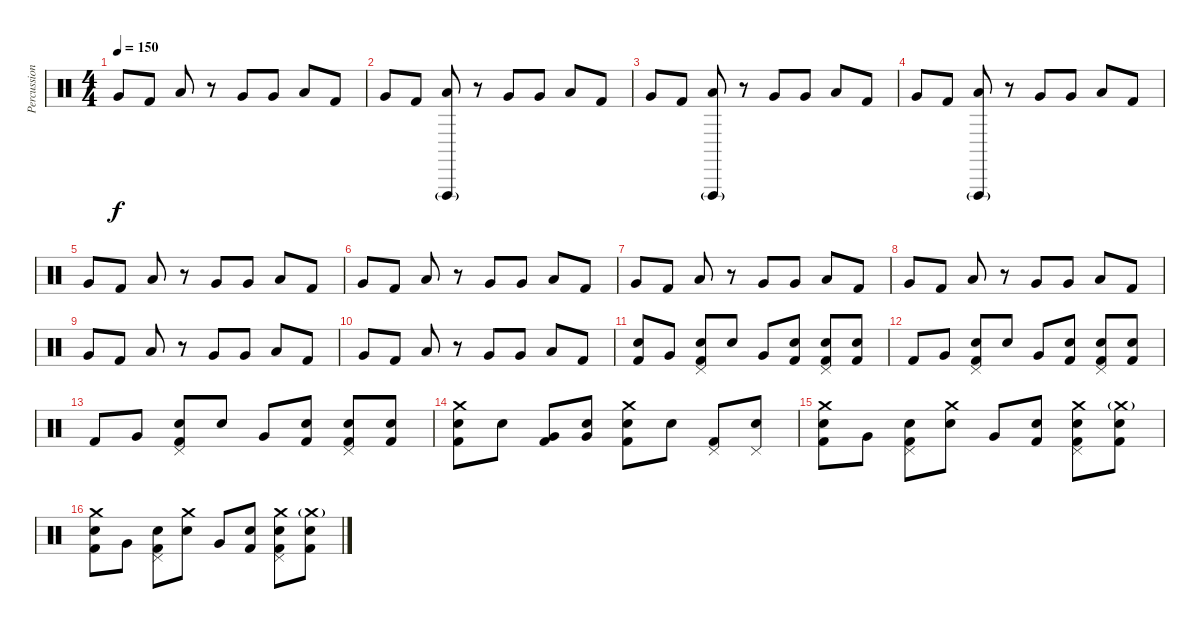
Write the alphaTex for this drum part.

\track ("Percussions" "Percussion") {instrument percussion}
\staff {score}
\articulation defaults
\ts (4 4)
\tempo 150
\clef neutral
\ks c "Very Low Tom (hit)".8{dy f} "Kick (hit) 2".8 "Low Tom (hit)".8
r.8 "Very Low Tom (hit)".8 "Very Low Tom (hit)".8 "Low Tom (hit)".8 "Kick (hit) 2".8 |
"Very Low Tom (hit)".8 "Kick (hit) 2".8 ("Vibraslap (hit)"{g} "Low Tom (hit)").8 r.8 "Very Low Tom (hit)".8 "Very Low Tom (hit)".8 "Low Tom (hit)".8 "Kick (hit) 2".8 |
"Very Low Tom (hit)".8 "Kick (hit) 2".8 ("Vibraslap (hit)"{g} "Low Tom (hit)").8 r.8 "Very Low Tom (hit)".8 "Very Low Tom (hit)".8 "Low Tom (hit)".8 "Kick (hit) 2".8 |
"Very Low Tom (hit)".8 "Kick (hit) 2".8 ("Vibraslap (hit)"{g} "Low Tom (hit)").8 r.8 "Very Low Tom (hit)".8 "Very Low Tom (hit)".8 "Low Tom (hit)".8 "Kick (hit) 2".8 |
"Very Low Tom (hit)".8 "Kick (hit) 2".8 "Low Tom (hit)".8 r.8 "Very Low Tom (hit)".8 "Very Low Tom (hit)".8 "Low Tom (hit)".8 "Kick (hit) 2".8 |
"Very Low Tom (hit)".8 "Kick (hit) 2".8 "Low Tom (hit)".8 r.8 "Very Low Tom (hit)".8 "Very Low Tom (hit)".8 "Low Tom (hit)".8 "Kick (hit) 2".8 |
"Very Low Tom (hit)".8 "Kick (hit) 2".8 "Low Tom (hit)".8 r.8 "Very Low Tom (hit)".8 "Very Low Tom (hit)".8 "Low Tom (hit)".8 "Kick (hit) 2".8 |
"Very Low Tom (hit)".8 "Kick (hit) 2".8 "Low Tom (hit)".8 r.8 "Very Low Tom (hit)".8 "Very Low Tom (hit)".8 "Low Tom (hit)".8 "Kick (hit) 2".8 |
"Very Low Tom (hit)".8 "Kick (hit) 2".8 "Low Tom (hit)".8 r.8 "Very Low Tom (hit)".8 "Very Low Tom (hit)".8 "Low Tom (hit)".8 "Kick (hit) 2".8 |
"Very Low Tom (hit)".8 "Kick (hit) 2".8 "Low Tom (hit)".8 r.8 "Very Low Tom (hit)".8 "Very Low Tom (hit)".8 "Low Tom (hit)".8 "Kick (hit) 2".8 |
("Electric Snare (hit)" "Kick (hit) 2").8 "Very Low Tom (hit)".8 ("Electric Snare (hit)" "Pedal Hi-Hat (hit)" "Kick (hit) 2").8 "Electric Snare (hit)".8 "Very Low Tom (hit)".8 ("Electric Snare (hit)" "Kick (hit) 2").8 ("Electric Snare (hit)" "Pedal Hi-Hat (hit)" "Kick (hit) 2").8 ("Electric Snare (hit)" "Kick (hit) 2").8 |
"Kick (hit) 2".8 "Very Low Tom (hit)".8 ("Electric Snare (hit)" "Pedal Hi-Hat (hit)" "Kick (hit) 2").8 "Electric Snare (hit)".8 "Very Low Tom (hit)".8 ("Electric Snare (hit)" "Kick (hit) 2").8 ("Electric Snare (hit)" "Pedal Hi-Hat (hit)" "Kick (hit) 2").8 ("Electric Snare (hit)" "Kick (hit) 2").8 |
"Kick (hit) 2".8 "Very Low Tom (hit)".8 ("Electric Snare (hit)" "Pedal Hi-Hat (hit)" "Kick (hit) 2").8 "Electric Snare (hit)".8 "Very Low Tom (hit)".8 ("Electric Snare (hit)" "Kick (hit) 2").8 ("Electric Snare (hit)" "Pedal Hi-Hat (hit)" "Kick (hit) 2").8 ("Electric Snare (hit)" "Kick (hit) 2").8 |
("Crash medium (hit)" "Electric Snare (hit)" "Kick (hit) 2").8 "Electric Snare (hit)".8 ("Very Low Tom (hit)" "Kick (hit) 2").8 ("Very Low Tom (hit)" "Electric Snare (hit)").8 ("Crash medium (hit)" "Electric Snare (hit)" "Kick (hit) 2").8 "Electric Snare (hit)".8 ("Pedal Hi-Hat (hit)" "Kick (hit) 2").8 ("Pedal Hi-Hat (hit)" "Electric Snare (hit)").8 |
("Electric Snare (hit)" "Crash medium (hit)" "Kick (hit) 2").8 "Very Low Tom (hit)".8 ("Electric Snare (hit)" "Pedal Hi-Hat (hit)" "Kick (hit) 2").8 ("Electric Snare (hit)" "Crash medium (hit)").8 "Very Low Tom (hit)".8 ("Electric Snare (hit)" "Kick (hit) 2").8 ("Electric Snare (hit)" "Pedal Hi-Hat (hit)" "Crash medium (hit)" "Kick (hit) 2").8 ("Electric Snare (hit)" "Crash medium (hit)"{g} "Kick (hit) 2").8 |
("Electric Snare (hit)" "Crash medium (hit)" "Kick (hit) 2").8 "Very Low Tom (hit)".8 ("Electric Snare (hit)" "Pedal Hi-Hat (hit)" "Kick (hit) 2").8 ("Electric Snare (hit)" "Crash medium (hit)").8 "Very Low Tom (hit)".8 ("Electric Snare (hit)" "Kick (hit) 2").8 ("Electric Snare (hit)" "Pedal Hi-Hat (hit)" "Crash medium (hit)" "Kick (hit) 2").8 ("Electric Snare (hit)" "Crash medium (hit)"{g} "Kick (hit) 2").8
